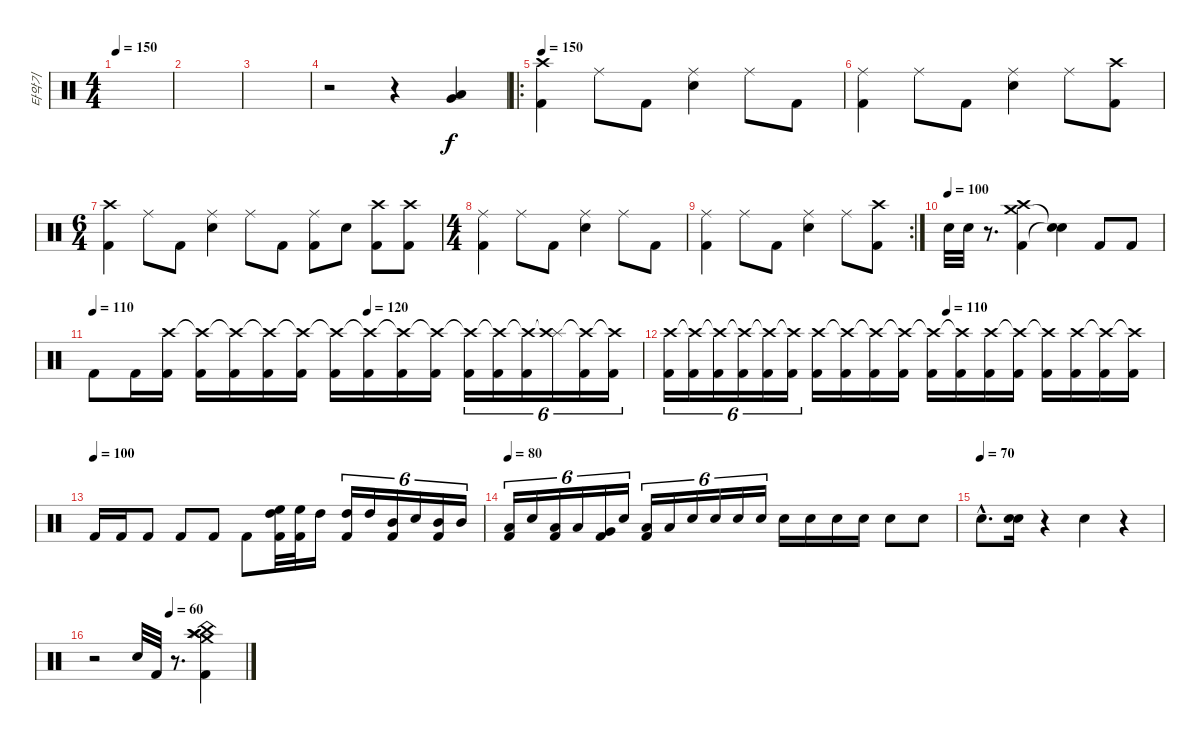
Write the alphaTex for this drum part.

\track ("타악기" "타악기") {instrument percussion}
\staff {score}
\articulation defaults
\ts (4 4)
\tempo 150
\clef neutral
\ks c
|
|
|
r.2 r.4 ("Low Floor Tom (hit)" "Very Low Tom (hit)").4 |
\ro
\tempo 150
("Kick (hit) 2" "Crash high (hit)").4 "Ride (middle)".8 "Kick (hit) 2".8 ("Snare (hit) 2" "Ride (middle)").4 "Ride (middle)".8 "Kick (hit) 2".8 |
("Ride (middle)" "Kick (hit) 2").4 "Ride (middle)".8 "Kick (hit) 2".8 ("Ride (middle)" "Snare (hit) 2").4 "Ride (middle)".8 ("Kick (hit) 2" "Crash high (hit)").8 |
\ts (6 4)
("Crash high (hit)" "Kick (hit) 2").4 "Ride (middle)".8 "Kick (hit) 2".8 ("Ride (middle)" "Snare (hit) 2").4 "Ride (middle)".8 "Kick (hit) 2".8 ("Kick (hit) 2" "Ride (middle)").8 "Snare (hit) 2".8 ("Kick (hit) 2" "Crash high (hit)").8 ("Kick (hit) 2" "Crash high (hit)").8 |
\ts (4 4)
("Ride (middle)" "Kick (hit) 2").4 "Ride (middle)".8 "Kick (hit) 2".8 ("Ride (middle)" "Snare (hit) 2").4 "Ride (middle)".8 "Kick (hit) 2".8 |
\rc 2
("Ride (middle)" "Kick (hit) 2").4 "Ride (middle)".8 "Kick (hit) 2".8 ("Ride (middle)" "Snare (hit) 2").4 "Ride (middle)".8 ("Kick (hit) 2" "Crash high (hit)").8 |
\tempo (100)
"Snare (hit) 2".32 "Snare (hit) 2".32 r.8{d} ("Crash medium (hit)" "Kick (hit) 2" "Crash high (hit)").4 ("Snare (hit)"{t} "Snare (hit)"{t}).4 "Kick (hit) 2".8 "Kick (hit) 2".8 |
\tempo 110
\tempo (120 0.5)
"Kick (hit) 2".8 "Kick (hit) 2".16 ("Kick (hit) 2" "Crash high (hit)").16 ("Kick (hit) 2" "Crash high (hit)"{t}).16 ("Kick (hit) 2" "Crash high (hit)"{t}).16 ("Kick (hit) 2" "Crash high (hit)"{t}).16 ("Kick (hit) 2" "Crash high (hit)"{t}).16 ("Kick (hit) 2" "Crash high (hit)"{t}).16 ("Kick (hit) 2" "Crash high (hit)"{t}).16 ("Kick (hit) 2" "Crash high (hit)"{t}).16 ("Kick (hit) 2" "Crash high (hit)"{t}).16 ("Kick (hit) 2" "Crash high (hit)"{t}).16{tu (6 4)} ("Kick (hit) 2" "Crash high (hit)"{t}).16{tu (6 4)} ("Kick (hit) 2" "Crash high (hit)"{t}).16{tu (6 4)} ("Splash (hit)" "Crash high (hit)"{t}).16{tu (6 4)} ("Kick (hit) 2" "Crash high (hit)"{t}).16{tu (6 4)} ("Kick (hit) 2" "Crash high (hit)"{t}).16{tu (6 4)} |
\tempo (110 0.5625)
("Kick (hit) 2" "Crash high (hit)").16{tu (6 4)} ("Kick (hit) 2" "Crash high (hit)"{t}).16{tu (6 4)} ("Kick (hit) 2" "Crash high (hit)"{t}).16{tu (6 4)} ("Kick (hit) 2" "Crash high (hit)"{t}).16{tu (6 4)} ("Kick (hit) 2" "Crash high (hit)"{t}).16{tu (6 4)} ("Kick (hit) 2" "Crash high (hit)"{t}).16{tu (6 4)} ("Kick (hit) 2" "Crash high (hit)").16 ("Kick (hit) 2" "Crash high (hit)"{t}).16 ("Kick (hit) 2" "Crash high (hit)"{t}).16 ("Kick (hit) 2" "Crash high (hit)"{t}).16 ("Kick (hit) 2" "Crash high (hit)"{t}).16 ("Kick (hit) 2" "Crash high (hit)"{t}).16 ("Kick (hit) 2" "Crash high (hit)").16 ("Kick (hit) 2" "Crash high (hit)"{t}).16 ("Kick (hit) 2" "Crash high (hit)"{t}).16 ("Kick (hit) 2" "Crash high (hit)").16 ("Kick (hit) 2" "Crash high (hit)"{t}).16 ("Kick (hit) 2" "Crash high (hit)"{t}).16 |
\tempo (100)
"Kick (hit) 2".16 "Kick (hit) 2".16 "Kick (hit) 2".8 "Kick (hit) 2".8 "Kick (hit) 2".8 "Kick (hit) 2".8 ("High Tom (hit)" "High Floor Tom (hit)" "Kick (hit) 2").32 ("High Floor Tom (hit)" "Kick (hit) 2").32 "High Tom (hit)".16 ("High Tom (hit)" "Kick (hit) 2").16{tu (6 4)} "High Tom (hit)".16{tu (6 4)} ("Mid Tom (hit)" "Kick (hit) 2").16{tu (6 4)} "Snare (hit) 2".16{tu (6 4)} ("Mid Tom (hit)" "Kick (hit) 2").16{tu (6 4)} "Mid Tom (hit)".16{tu (6 4)} |
\tempo 80
("Low Tom (hit)" "Kick (hit) 2").16{tu (6 4)} "Snare (hit) 2".16{tu (6 4)} ("Low Tom (hit)" "Kick (hit) 2").16{tu (6 4)} "Low Tom (hit)".16{tu (6 4)} ("Very Low Tom (hit)" "Kick (hit) 2").16{tu (6 4)} "Snare (hit) 2".16{tu (6 4)} ("Low Floor Tom (hit)" "Kick (hit) 2").16{tu (6 4)} "Low Floor Tom (hit)".16{tu (6 4)} "Snare (hit) 2".16{tu (6 4)} "Snare (hit) 2".16{tu (6 4)} "Snare (hit) 2".16{tu (6 4)} "Snare (hit) 2".16{tu (6 4)} "Snare (hit) 2".16 "Snare (hit) 2".16 "Snare (hit) 2".16 "Snare (hit) 2".16 "Snare (hit) 2".8 "Snare (hit) 2".8 |
\tempo (70)
"Snare (hit) 2"{hac}.8{d} ("Snare (hit) 2" "Snare (hit) 2").16 r.4 "Snare (hit) 2".4 r.4 |
\tempo (60 0.5)
r.2 "Snare (hit) 2".32 "Kick (hit) 2".32 r.8{d} ("China (hit)" "Crash high (hit)" "Crash high (hit)" "Splash (hit)" "Crash medium (hit)" "Kick (hit) 2").4
